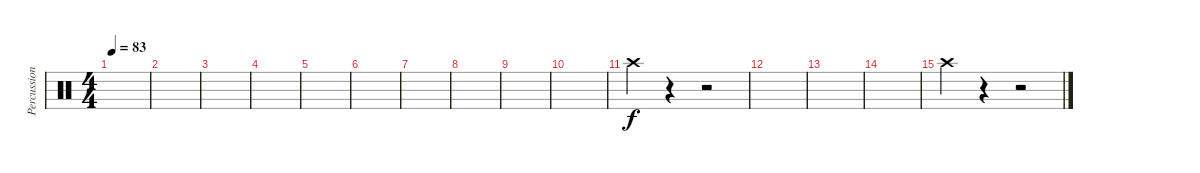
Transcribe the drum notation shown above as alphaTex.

\track ("Percussion" "Percussion") {instrument percussion}
\staff {score}
\articulation defaults
\ts (4 4)
\tempo 83
\clef neutral
\ks c
|
|
|
|
|
|
|
|
|
|
"Crash high (hit)".4 r.4 r.2 |
|
|
|
"Crash high (hit)".4 r.4 r.2
